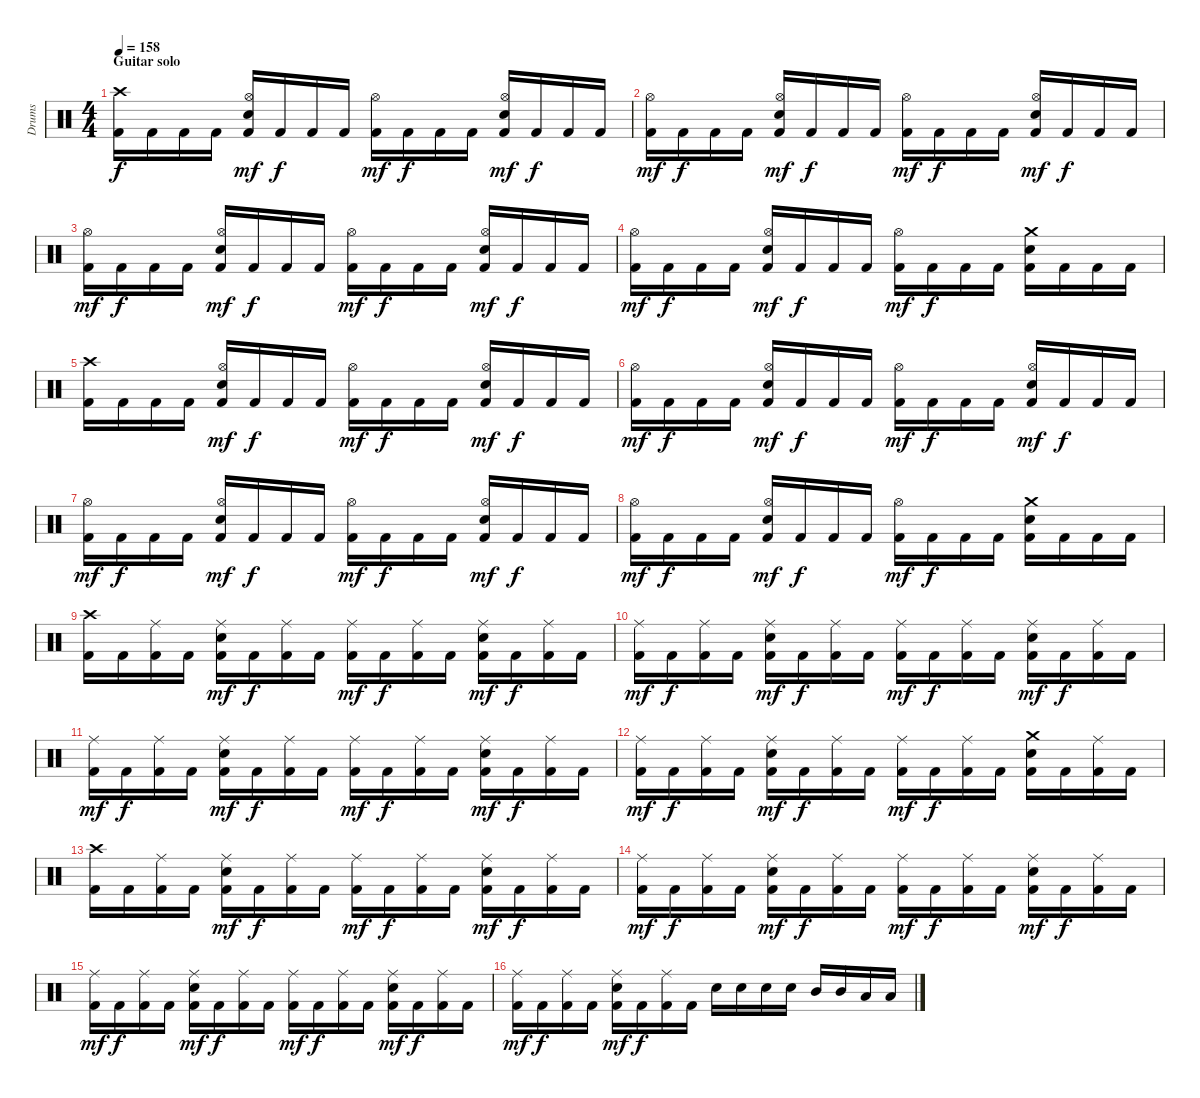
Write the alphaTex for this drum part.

\track ("Drums" "Drums") {instrument percussion}
\staff {score}
\articulation defaults
\ts (4 4)
\section ("" "Guitar solo")
\tempo 158
\clef neutral
\ks c
("Crash high (hit)" "Kick (hit) 2").16{dy f} "Kick (hit) 2".16 "Kick (hit) 2".16 "Kick (hit) 2".16 ("Hi-Hat (open)" "Electric Snare (hit)" "Kick (hit) 2").16{dy mf} "Kick (hit) 2".16{dy f} "Kick (hit) 2".16 "Kick (hit) 2".16 ("Hi-Hat (open)" "Kick (hit) 2").16{dy mf} "Kick (hit) 2".16{dy f} "Kick (hit) 2".16 "Kick (hit) 2".16 ("Hi-Hat (open)" "Electric Snare (hit)" "Kick (hit) 2").16{dy mf} "Kick (hit) 2".16{dy f} "Kick (hit) 2".16 "Kick (hit) 2".16 |
("Hi-Hat (open)" "Kick (hit) 2").16{dy mf} "Kick (hit) 2".16{dy f} "Kick (hit) 2".16 "Kick (hit) 2".16 ("Hi-Hat (open)" "Electric Snare (hit)" "Kick (hit) 2").16{dy mf} "Kick (hit) 2".16{dy f} "Kick (hit) 2".16 "Kick (hit) 2".16 ("Hi-Hat (open)" "Kick (hit) 2").16{dy mf} "Kick (hit) 2".16{dy f} "Kick (hit) 2".16 "Kick (hit) 2".16 ("Hi-Hat (open)" "Electric Snare (hit)" "Kick (hit) 2").16{dy mf} "Kick (hit) 2".16{dy f} "Kick (hit) 2".16 "Kick (hit) 2".16 |
("Hi-Hat (open)" "Kick (hit) 2").16{dy mf} "Kick (hit) 2".16{dy f} "Kick (hit) 2".16 "Kick (hit) 2".16 ("Hi-Hat (open)" "Electric Snare (hit)" "Kick (hit) 2").16{dy mf} "Kick (hit) 2".16{dy f} "Kick (hit) 2".16 "Kick (hit) 2".16 ("Hi-Hat (open)" "Kick (hit) 2").16{dy mf} "Kick (hit) 2".16{dy f} "Kick (hit) 2".16 "Kick (hit) 2".16 ("Hi-Hat (open)" "Electric Snare (hit)" "Kick (hit) 2").16{dy mf} "Kick (hit) 2".16{dy f} "Kick (hit) 2".16 "Kick (hit) 2".16 |
("Hi-Hat (open)" "Kick (hit) 2").16{dy mf} "Kick (hit) 2".16{dy f} "Kick (hit) 2".16 "Kick (hit) 2".16 ("Hi-Hat (open)" "Electric Snare (hit)" "Kick (hit) 2").16{dy mf} "Kick (hit) 2".16{dy f} "Kick (hit) 2".16 "Kick (hit) 2".16 ("Hi-Hat (open)" "Kick (hit) 2").16{dy mf} "Kick (hit) 2".16{dy f} "Kick (hit) 2".16 "Kick (hit) 2".16 ("Crash medium (hit)" "Electric Snare (hit)" "Kick (hit) 2").16 "Kick (hit) 2".16 "Kick (hit) 2".16 "Kick (hit) 2".16 |
("Crash high (hit)" "Kick (hit) 2").16 "Kick (hit) 2".16 "Kick (hit) 2".16 "Kick (hit) 2".16 ("Hi-Hat (open)" "Electric Snare (hit)" "Kick (hit) 2").16{dy mf} "Kick (hit) 2".16{dy f} "Kick (hit) 2".16 "Kick (hit) 2".16 ("Hi-Hat (open)" "Kick (hit) 2").16{dy mf} "Kick (hit) 2".16{dy f} "Kick (hit) 2".16 "Kick (hit) 2".16 ("Hi-Hat (open)" "Electric Snare (hit)" "Kick (hit) 2").16{dy mf} "Kick (hit) 2".16{dy f} "Kick (hit) 2".16 "Kick (hit) 2".16 |
("Hi-Hat (open)" "Kick (hit) 2").16{dy mf} "Kick (hit) 2".16{dy f} "Kick (hit) 2".16 "Kick (hit) 2".16 ("Hi-Hat (open)" "Electric Snare (hit)" "Kick (hit) 2").16{dy mf} "Kick (hit) 2".16{dy f} "Kick (hit) 2".16 "Kick (hit) 2".16 ("Hi-Hat (open)" "Kick (hit) 2").16{dy mf} "Kick (hit) 2".16{dy f} "Kick (hit) 2".16 "Kick (hit) 2".16 ("Hi-Hat (open)" "Electric Snare (hit)" "Kick (hit) 2").16{dy mf} "Kick (hit) 2".16{dy f} "Kick (hit) 2".16 "Kick (hit) 2".16 |
("Hi-Hat (open)" "Kick (hit) 2").16{dy mf} "Kick (hit) 2".16{dy f} "Kick (hit) 2".16 "Kick (hit) 2".16 ("Hi-Hat (open)" "Electric Snare (hit)" "Kick (hit) 2").16{dy mf} "Kick (hit) 2".16{dy f} "Kick (hit) 2".16 "Kick (hit) 2".16 ("Hi-Hat (open)" "Kick (hit) 2").16{dy mf} "Kick (hit) 2".16{dy f} "Kick (hit) 2".16 "Kick (hit) 2".16 ("Hi-Hat (open)" "Electric Snare (hit)" "Kick (hit) 2").16{dy mf} "Kick (hit) 2".16{dy f} "Kick (hit) 2".16 "Kick (hit) 2".16 |
("Hi-Hat (open)" "Kick (hit) 2").16{dy mf} "Kick (hit) 2".16{dy f} "Kick (hit) 2".16 "Kick (hit) 2".16 ("Hi-Hat (open)" "Electric Snare (hit)" "Kick (hit) 2").16{dy mf} "Kick (hit) 2".16{dy f} "Kick (hit) 2".16 "Kick (hit) 2".16 ("Hi-Hat (open)" "Kick (hit) 2").16{dy mf} "Kick (hit) 2".16{dy f} "Kick (hit) 2".16 "Kick (hit) 2".16 ("Crash medium (hit)" "Electric Snare (hit)" "Kick (hit) 2").16 "Kick (hit) 2".16 "Kick (hit) 2".16 "Kick (hit) 2".16 |
("Crash high (hit)" "Kick (hit) 2").16 "Kick (hit) 2".16 ("Ride (middle)" "Kick (hit) 2").16 "Kick (hit) 2".16 ("Ride (middle)" "Electric Snare (hit)" "Kick (hit) 2").16{dy mf} "Kick (hit) 2".16{dy f} ("Ride (middle)" "Kick (hit) 2").16 "Kick (hit) 2".16 ("Ride (middle)" "Kick (hit) 2").16{dy mf} "Kick (hit) 2".16{dy f} ("Ride (middle)" "Kick (hit) 2").16 "Kick (hit) 2".16 ("Ride (middle)" "Electric Snare (hit)" "Kick (hit) 2").16{dy mf} "Kick (hit) 2".16{dy f} ("Ride (middle)" "Kick (hit) 2").16 "Kick (hit) 2".16 |
("Ride (middle)" "Kick (hit) 2").16{dy mf} "Kick (hit) 2".16{dy f} ("Ride (middle)" "Kick (hit) 2").16 "Kick (hit) 2".16 ("Ride (middle)" "Electric Snare (hit)" "Kick (hit) 2").16{dy mf} "Kick (hit) 2".16{dy f} ("Ride (middle)" "Kick (hit) 2").16 "Kick (hit) 2".16 ("Ride (middle)" "Kick (hit) 2").16{dy mf} "Kick (hit) 2".16{dy f} ("Ride (middle)" "Kick (hit) 2").16 "Kick (hit) 2".16 ("Ride (middle)" "Electric Snare (hit)" "Kick (hit) 2").16{dy mf} "Kick (hit) 2".16{dy f} ("Ride (middle)" "Kick (hit) 2").16 "Kick (hit) 2".16 |
("Ride (middle)" "Kick (hit) 2").16{dy mf} "Kick (hit) 2".16{dy f} ("Ride (middle)" "Kick (hit) 2").16 "Kick (hit) 2".16 ("Ride (middle)" "Electric Snare (hit)" "Kick (hit) 2").16{dy mf} "Kick (hit) 2".16{dy f} ("Ride (middle)" "Kick (hit) 2").16 "Kick (hit) 2".16 ("Ride (middle)" "Kick (hit) 2").16{dy mf} "Kick (hit) 2".16{dy f} ("Ride (middle)" "Kick (hit) 2").16 "Kick (hit) 2".16 ("Ride (middle)" "Electric Snare (hit)" "Kick (hit) 2").16{dy mf} "Kick (hit) 2".16{dy f} ("Ride (middle)" "Kick (hit) 2").16 "Kick (hit) 2".16 |
("Ride (middle)" "Kick (hit) 2").16{dy mf} "Kick (hit) 2".16{dy f} ("Ride (middle)" "Kick (hit) 2").16 "Kick (hit) 2".16 ("Ride (middle)" "Electric Snare (hit)" "Kick (hit) 2").16{dy mf} "Kick (hit) 2".16{dy f} ("Ride (middle)" "Kick (hit) 2").16 "Kick (hit) 2".16 ("Ride (middle)" "Kick (hit) 2").16{dy mf} "Kick (hit) 2".16{dy f} ("Ride (middle)" "Kick (hit) 2").16 "Kick (hit) 2".16 ("Crash medium (hit)" "Electric Snare (hit)" "Kick (hit) 2").16 "Kick (hit) 2".16 ("Ride (middle)" "Kick (hit) 2").16 "Kick (hit) 2".16 |
("Crash high (hit)" "Kick (hit) 2").16 "Kick (hit) 2".16 ("Ride (middle)" "Kick (hit) 2").16 "Kick (hit) 2".16 ("Ride (middle)" "Electric Snare (hit)" "Kick (hit) 2").16{dy mf} "Kick (hit) 2".16{dy f} ("Ride (middle)" "Kick (hit) 2").16 "Kick (hit) 2".16 ("Ride (middle)" "Kick (hit) 2").16{dy mf} "Kick (hit) 2".16{dy f} ("Ride (middle)" "Kick (hit) 2").16 "Kick (hit) 2".16 ("Ride (middle)" "Electric Snare (hit)" "Kick (hit) 2").16{dy mf} "Kick (hit) 2".16{dy f} ("Ride (middle)" "Kick (hit) 2").16 "Kick (hit) 2".16 |
("Ride (middle)" "Kick (hit) 2").16{dy mf} "Kick (hit) 2".16{dy f} ("Ride (middle)" "Kick (hit) 2").16 "Kick (hit) 2".16 ("Ride (middle)" "Electric Snare (hit)" "Kick (hit) 2").16{dy mf} "Kick (hit) 2".16{dy f} ("Ride (middle)" "Kick (hit) 2").16 "Kick (hit) 2".16 ("Ride (middle)" "Kick (hit) 2").16{dy mf} "Kick (hit) 2".16{dy f} ("Ride (middle)" "Kick (hit) 2").16 "Kick (hit) 2".16 ("Ride (middle)" "Electric Snare (hit)" "Kick (hit) 2").16{dy mf} "Kick (hit) 2".16{dy f} ("Ride (middle)" "Kick (hit) 2").16 "Kick (hit) 2".16 |
("Ride (middle)" "Kick (hit) 2").16{dy mf} "Kick (hit) 2".16{dy f} ("Ride (middle)" "Kick (hit) 2").16 "Kick (hit) 2".16 ("Ride (middle)" "Electric Snare (hit)" "Kick (hit) 2").16{dy mf} "Kick (hit) 2".16{dy f} ("Ride (middle)" "Kick (hit) 2").16 "Kick (hit) 2".16 ("Ride (middle)" "Kick (hit) 2").16{dy mf} "Kick (hit) 2".16{dy f} ("Ride (middle)" "Kick (hit) 2").16 "Kick (hit) 2".16 ("Ride (middle)" "Electric Snare (hit)" "Kick (hit) 2").16{dy mf} "Kick (hit) 2".16{dy f} ("Ride (middle)" "Kick (hit) 2").16 "Kick (hit) 2".16 |
("Ride (middle)" "Kick (hit) 2").16{dy mf} "Kick (hit) 2".16{dy f} ("Ride (middle)" "Kick (hit) 2").16 "Kick (hit) 2".16 ("Ride (middle)" "Electric Snare (hit)" "Kick (hit) 2").16{dy mf} "Kick (hit) 2".16{dy f} ("Ride (middle)" "Kick (hit) 2").16 "Kick (hit) 2".16 "Electric Snare (hit)".16 "Electric Snare (hit)".16 "Electric Snare (hit)".16 "Electric Snare (hit)".16 "Mid Tom (hit)".16 "Mid Tom (hit)".16 "Low Tom (hit)".16 "Low Tom (hit)".16
